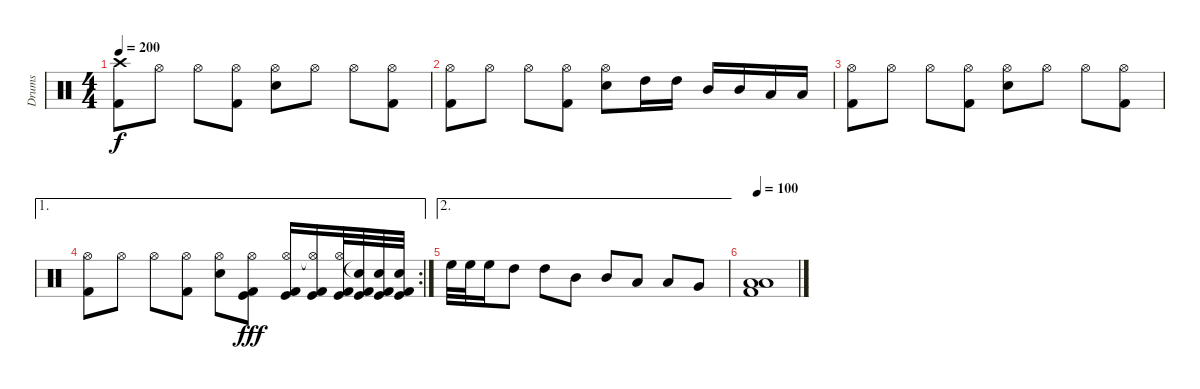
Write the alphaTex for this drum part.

\track ("Drums" "Drums") {instrument percussion}
\staff {score}
\articulation defaults
\ts (4 4)
\tempo 200
\clef neutral
\ks c
("Crash high (hit)" "Kick (hit) 2").8{dy f} "Hi-Hat (open)".8 "Hi-Hat (open)".8 ("Hi-Hat (open)" "Kick (hit) 2").8 ("Hi-Hat (open)" "Electric Snare (hit)").8 "Hi-Hat (open)".8 "Hi-Hat (open)".8 ("Hi-Hat (open)" "Kick (hit) 2").8 |
("Hi-Hat (open)" "Kick (hit) 2").8 "Hi-Hat (open)".8 "Hi-Hat (open)".8 ("Hi-Hat (open)" "Kick (hit) 2").8 ("Hi-Hat (open)" "Electric Snare (hit)").8 "High Tom (hit)".16 "High Tom (hit)".16 "Mid Tom (hit)".16 "Mid Tom (hit)".16 "Low Tom (hit)".16 "Low Tom (hit)".16 |
("Hi-Hat (open)" "Kick (hit) 2").8 "Hi-Hat (open)".8 "Hi-Hat (open)".8 ("Hi-Hat (open)" "Kick (hit) 2").8 ("Hi-Hat (open)" "Electric Snare (hit)").8 "Hi-Hat (open)".8 "Hi-Hat (open)".8 ("Hi-Hat (open)" "Kick (hit) 2").8 |
\ae 1
\rc 2
("Hi-Hat (open)" "Kick (hit) 2").8 "Hi-Hat (open)".8 "Hi-Hat (open)".8 ("Hi-Hat (open)" "Kick (hit) 2").8 ("Hi-Hat (open)" "Electric Snare (hit)").8 ("Hi-Hat (open)" "Kick (hit)" "Kick (hit) 2").8{dy fff} ("Hi-Hat (open)" "Kick (hit)" "Kick (hit) 2").16 ("Hi-Hat (open)"{t} "Kick (hit)" "Kick (hit) 2").16 ("Hi-Hat (open)" "Kick (hit)" "Kick (hit) 2").32 ("Snare (hit)"{t} "Kick (hit)" "Kick (hit) 2").32 ("Snare (hit)"{t} "Kick (hit)" "Kick (hit) 2").32 ("Snare (hit)"{t} "Kick (hit)" "Kick (hit) 2").32 |
\ae 2 "High Floor Tom (hit)".32 "High Floor Tom (hit)".32 "High Floor Tom (hit)".16 "High Tom (hit)".8 "High Tom (hit)".8 "Mid Tom (hit)".8 "Mid Tom (hit)".8 "Low Tom (hit)".8 "Low Tom (hit)".8 "Very Low Tom (hit)".8
|
\tempo 100
("Low Floor Tom (hit)" "Low Floor Tom (hit)" "Kick (hit) 2").1
